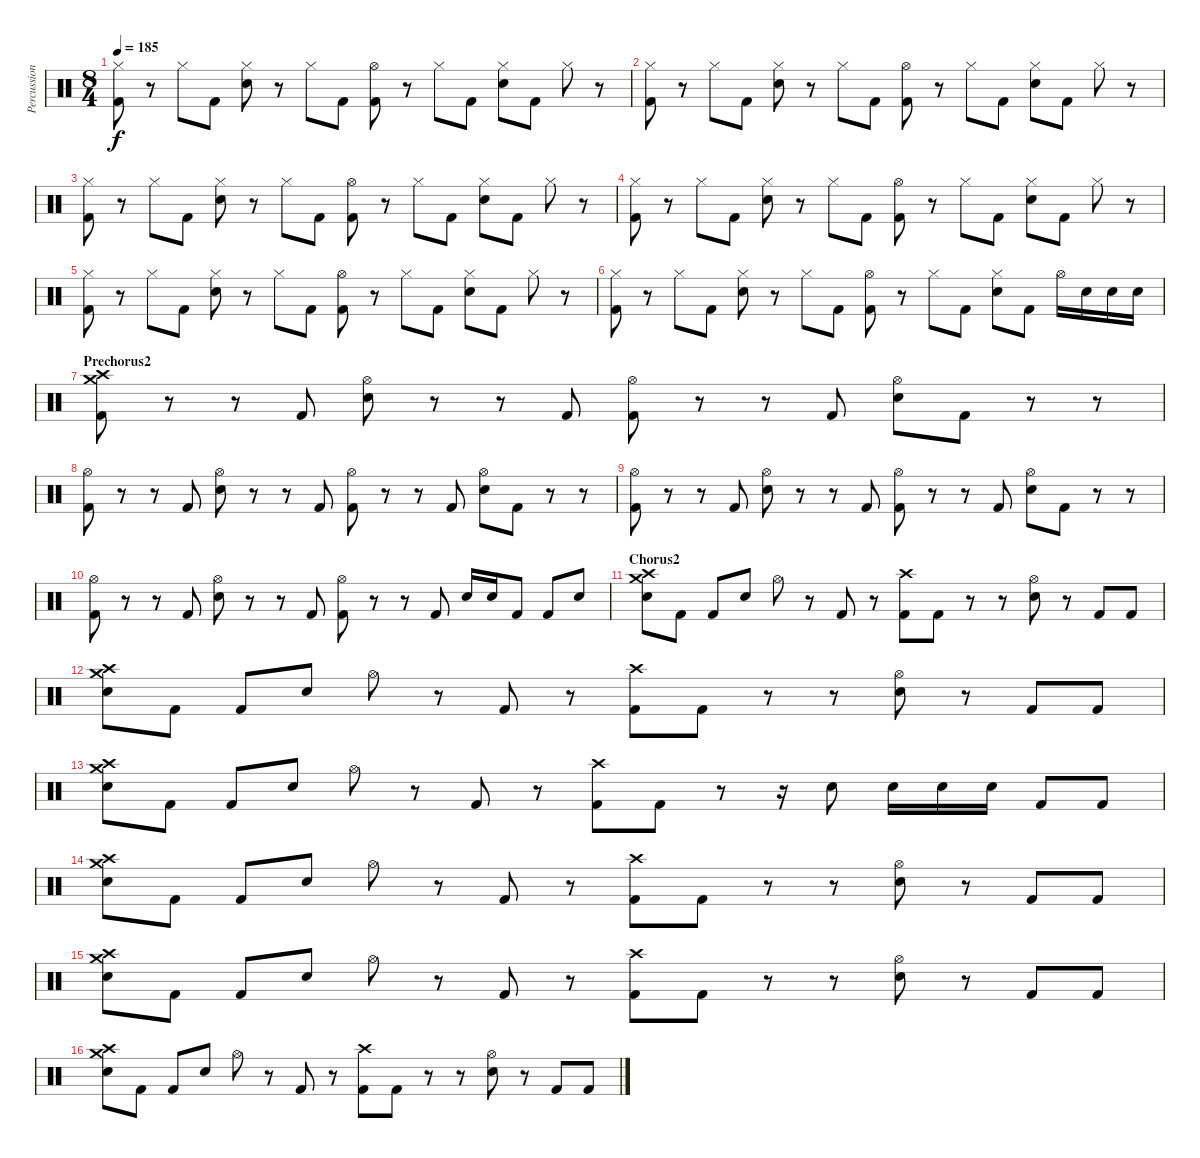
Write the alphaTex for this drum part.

\track ("Percussion" "Percussion") {instrument percussion}
\staff {score}
\articulation defaults
\ts (8 4)
\tempo 185
\clef neutral
\ks c
("Hi-Hat (closed)" "Kick (hit) 2").8{dy f} r.8 "Hi-Hat (closed)".8 "Kick (hit) 2".8 ("Hi-Hat (closed)" "Electric Snare (hit)").8 r.8 "Hi-Hat (closed)".8 "Kick (hit) 2".8 ("Hi-Hat (open)" "Kick (hit) 2").8 r.8 "Hi-Hat (closed)".8 "Kick (hit) 2".8 ("Hi-Hat (closed)" "Electric Snare (hit)").8 "Kick (hit) 2".8 "Hi-Hat (closed)".8 r.8 |
("Hi-Hat (closed)" "Kick (hit) 2").8 r.8 "Hi-Hat (closed)".8 "Kick (hit) 2".8 ("Hi-Hat (closed)" "Electric Snare (hit)").8 r.8 "Hi-Hat (closed)".8 "Kick (hit) 2".8 ("Hi-Hat (open)" "Kick (hit) 2").8 r.8 "Hi-Hat (closed)".8 "Kick (hit) 2".8 ("Hi-Hat (closed)" "Electric Snare (hit)").8 "Kick (hit) 2".8 "Hi-Hat (closed)".8 r.8 |
("Hi-Hat (closed)" "Kick (hit) 2").8 r.8 "Hi-Hat (closed)".8 "Kick (hit) 2".8 ("Hi-Hat (closed)" "Electric Snare (hit)").8 r.8 "Hi-Hat (closed)".8 "Kick (hit) 2".8 ("Hi-Hat (open)" "Kick (hit) 2").8 r.8 "Hi-Hat (closed)".8 "Kick (hit) 2".8 ("Hi-Hat (closed)" "Electric Snare (hit)").8 "Kick (hit) 2".8 "Hi-Hat (closed)".8 r.8 |
("Hi-Hat (closed)" "Kick (hit) 2").8 r.8 "Hi-Hat (closed)".8 "Kick (hit) 2".8 ("Hi-Hat (closed)" "Electric Snare (hit)").8 r.8 "Hi-Hat (closed)".8 "Kick (hit) 2".8 ("Hi-Hat (open)" "Kick (hit) 2").8 r.8 "Hi-Hat (closed)".8 "Kick (hit) 2".8 ("Hi-Hat (closed)" "Electric Snare (hit)").8 "Kick (hit) 2".8 "Hi-Hat (closed)".8 r.8 |
("Hi-Hat (closed)" "Kick (hit) 2").8 r.8 "Hi-Hat (closed)".8 "Kick (hit) 2".8 ("Hi-Hat (closed)" "Electric Snare (hit)").8 r.8 "Hi-Hat (closed)".8 "Kick (hit) 2".8 ("Hi-Hat (open)" "Kick (hit) 2").8 r.8 "Hi-Hat (closed)".8 "Kick (hit) 2".8 ("Hi-Hat (closed)" "Electric Snare (hit)").8 "Kick (hit) 2".8 "Hi-Hat (closed)".8 r.8 |
("Hi-Hat (closed)" "Kick (hit) 2").8 r.8 "Hi-Hat (closed)".8 "Kick (hit) 2".8 ("Hi-Hat (closed)" "Electric Snare (hit)").8 r.8 "Hi-Hat (closed)".8 "Kick (hit) 2".8 ("Hi-Hat (open)" "Kick (hit) 2").8 r.8 "Hi-Hat (closed)".8 "Kick (hit) 2".8 ("Hi-Hat (closed)" "Electric Snare (hit)").8 "Kick (hit) 2".8 "Hi-Hat (open)".16 "Electric Snare (hit)".16 "Electric Snare (hit)".16 "Electric Snare (hit)".16 |
\section ("" "Prechorus2")
("Crash high (hit)" "Crash medium (hit)" "Kick (hit) 2").8 r.8 r.8 "Kick (hit) 2".8 ("Hi-Hat (open)" "Electric Snare (hit)").8 r.8 r.8 "Kick (hit) 2".8 ("Hi-Hat (open)" "Kick (hit) 2").8 r.8 r.8 "Kick (hit) 2".8 ("Hi-Hat (open)" "Electric Snare (hit)").8 "Kick (hit) 2".8 r.8 r.8 |
("Hi-Hat (open)" "Kick (hit) 2").8 r.8 r.8 "Kick (hit) 2".8 ("Hi-Hat (open)" "Electric Snare (hit)").8 r.8 r.8 "Kick (hit) 2".8 ("Hi-Hat (open)" "Kick (hit) 2").8 r.8 r.8 "Kick (hit) 2".8 ("Hi-Hat (open)" "Electric Snare (hit)").8 "Kick (hit) 2".8 r.8 r.8 |
("Hi-Hat (open)" "Kick (hit) 2").8 r.8 r.8 "Kick (hit) 2".8 ("Hi-Hat (open)" "Electric Snare (hit)").8 r.8 r.8 "Kick (hit) 2".8 ("Hi-Hat (open)" "Kick (hit) 2").8 r.8 r.8 "Kick (hit) 2".8 ("Hi-Hat (open)" "Electric Snare (hit)").8 "Kick (hit) 2".8 r.8 r.8 |
("Hi-Hat (open)" "Kick (hit) 2").8 r.8 r.8 "Kick (hit) 2".8 ("Hi-Hat (open)" "Electric Snare (hit)").8 r.8 r.8 "Kick (hit) 2".8 ("Hi-Hat (open)" "Kick (hit) 2").8 r.8 r.8 "Kick (hit) 2".8 "Electric Snare (hit)".16 "Electric Snare (hit)".16 "Kick (hit) 2".8 "Kick (hit) 2".8 "Electric Snare (hit)".8 |
\section ("" "Chorus2")
("Crash high (hit)" "Crash medium (hit)" "Electric Snare (hit)").8 "Kick (hit) 2".8 "Kick (hit) 2".8 "Electric Snare (hit)".8 "Hi-Hat (open)".8 r.8 "Kick (hit) 2".8 r.8 ("Crash high (hit)" "Kick (hit) 2").8 "Kick (hit) 2".8 r.8 r.8 ("Hi-Hat (open)" "Electric Snare (hit)").8 r.8 "Kick (hit) 2".8 "Kick (hit) 2".8 |
("Crash high (hit)" "Crash medium (hit)" "Electric Snare (hit)").8 "Kick (hit) 2".8 "Kick (hit) 2".8 "Electric Snare (hit)".8 "Hi-Hat (open)".8 r.8 "Kick (hit) 2".8 r.8 ("Crash high (hit)" "Kick (hit) 2").8 "Kick (hit) 2".8 r.8 r.8 ("Hi-Hat (open)" "Electric Snare (hit)").8 r.8 "Kick (hit) 2".8 "Kick (hit) 2".8 |
("Crash high (hit)" "Crash medium (hit)" "Electric Snare (hit)").8 "Kick (hit) 2".8 "Kick (hit) 2".8 "Electric Snare (hit)".8 "Hi-Hat (open)".8 r.8 "Kick (hit) 2".8 r.8 ("Crash high (hit)" "Kick (hit) 2").8 "Kick (hit) 2".8 r.8 r.16 "Electric Snare (hit)".8 "Electric Snare (hit)".16 "Electric Snare (hit)".16 "Electric Snare (hit)".16 "Kick (hit) 2".8 "Kick (hit) 2".8 |
("Crash high (hit)" "Crash medium (hit)" "Electric Snare (hit)").8 "Kick (hit) 2".8 "Kick (hit) 2".8 "Electric Snare (hit)".8 "Hi-Hat (open)".8 r.8 "Kick (hit) 2".8 r.8 ("Crash high (hit)" "Kick (hit) 2").8 "Kick (hit) 2".8 r.8 r.8 ("Hi-Hat (open)" "Electric Snare (hit)").8 r.8 "Kick (hit) 2".8 "Kick (hit) 2".8 |
("Crash high (hit)" "Crash medium (hit)" "Electric Snare (hit)").8 "Kick (hit) 2".8 "Kick (hit) 2".8 "Electric Snare (hit)".8 "Hi-Hat (open)".8 r.8 "Kick (hit) 2".8 r.8 ("Crash high (hit)" "Kick (hit) 2").8 "Kick (hit) 2".8 r.8 r.8 ("Hi-Hat (open)" "Electric Snare (hit)").8 r.8 "Kick (hit) 2".8 "Kick (hit) 2".8 |
("Crash high (hit)" "Crash medium (hit)" "Electric Snare (hit)").8 "Kick (hit) 2".8 "Kick (hit) 2".8 "Electric Snare (hit)".8 "Hi-Hat (open)".8 r.8 "Kick (hit) 2".8 r.8 ("Crash high (hit)" "Kick (hit) 2").8 "Kick (hit) 2".8 r.8 r.8 ("Hi-Hat (open)" "Electric Snare (hit)").8 r.8 "Kick (hit) 2".8 "Kick (hit) 2".8
